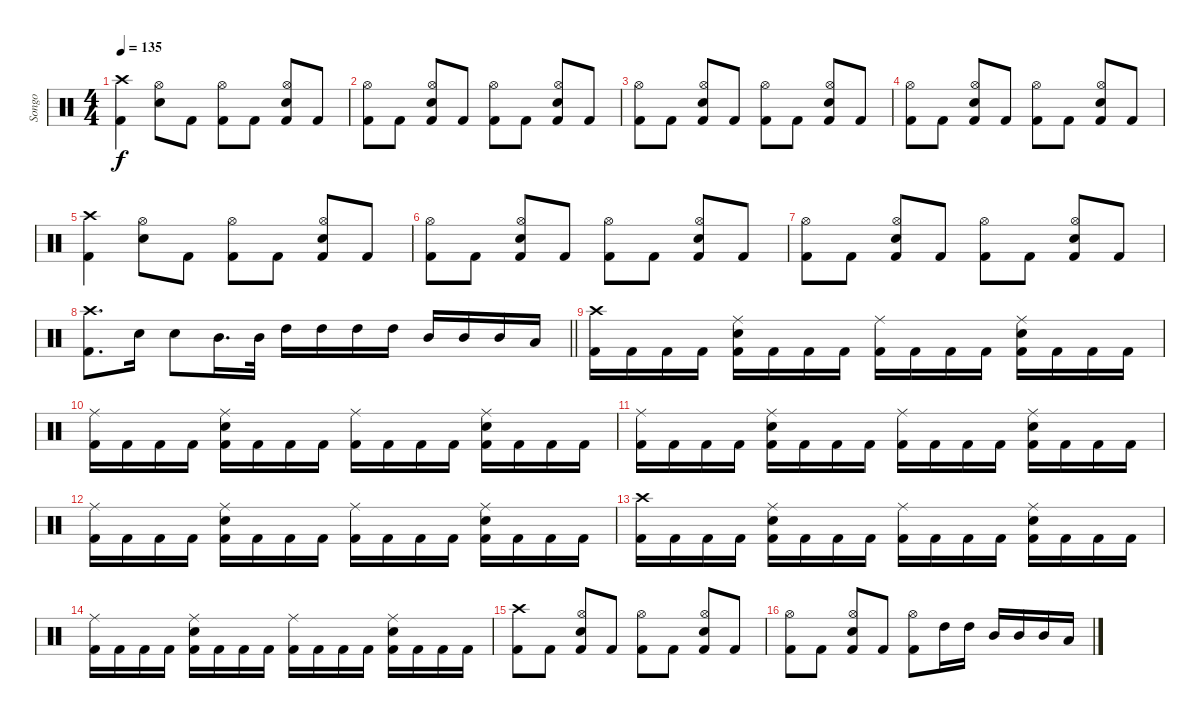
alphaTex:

\track ("Songo" "Songo") {instrument percussion}
\staff {score}
\articulation defaults
\ts (4 4)
\tempo 135
\clef neutral
\ks c
("Crash high (hit)" "Kick (hit) 2").4{dy f} ("Hi-Hat (open)" "Snare (hit) 2").8 "Kick (hit) 2".8 ("Hi-Hat (open)" "Kick (hit) 2").8 "Kick (hit) 2".8 ("Hi-Hat (open)" "Snare (hit) 2" "Kick (hit) 2").8 "Kick (hit) 2".8 |
("Hi-Hat (open)" "Kick (hit) 2").8 "Kick (hit) 2".8 ("Hi-Hat (open)" "Snare (hit) 2" "Kick (hit) 2").8 "Kick (hit) 2".8 ("Hi-Hat (open)" "Kick (hit) 2").8 "Kick (hit) 2".8 ("Hi-Hat (open)" "Snare (hit) 2" "Kick (hit) 2").8 "Kick (hit) 2".8 |
("Hi-Hat (open)" "Kick (hit) 2").8 "Kick (hit) 2".8 ("Hi-Hat (open)" "Snare (hit) 2" "Kick (hit) 2").8 "Kick (hit) 2".8 ("Hi-Hat (open)" "Kick (hit) 2").8 "Kick (hit) 2".8 ("Hi-Hat (open)" "Snare (hit) 2" "Kick (hit) 2").8 "Kick (hit) 2".8 |
("Hi-Hat (open)" "Kick (hit) 2").8 "Kick (hit) 2".8 ("Hi-Hat (open)" "Snare (hit) 2" "Kick (hit) 2").8 "Kick (hit) 2".8 ("Hi-Hat (open)" "Kick (hit) 2").8 "Kick (hit) 2".8 ("Hi-Hat (open)" "Snare (hit) 2" "Kick (hit) 2").8 "Kick (hit) 2".8 |
("Crash high (hit)" "Kick (hit) 2").4 ("Hi-Hat (open)" "Snare (hit) 2").8 "Kick (hit) 2".8 ("Hi-Hat (open)" "Kick (hit) 2").8 "Kick (hit) 2".8 ("Hi-Hat (open)" "Snare (hit) 2" "Kick (hit) 2").8 "Kick (hit) 2".8 |
("Hi-Hat (open)" "Kick (hit) 2").8 "Kick (hit) 2".8 ("Hi-Hat (open)" "Snare (hit) 2" "Kick (hit) 2").8 "Kick (hit) 2".8 ("Hi-Hat (open)" "Kick (hit) 2").8 "Kick (hit) 2".8 ("Hi-Hat (open)" "Snare (hit) 2" "Kick (hit) 2").8 "Kick (hit) 2".8 |
("Hi-Hat (open)" "Kick (hit) 2").8 "Kick (hit) 2".8 ("Hi-Hat (open)" "Snare (hit) 2" "Kick (hit) 2").8 "Kick (hit) 2".8 ("Hi-Hat (open)" "Kick (hit) 2").8 "Kick (hit) 2".8 ("Hi-Hat (open)" "Snare (hit) 2" "Kick (hit) 2").8 "Kick (hit) 2".8 |
\barLineRight lightlight
("Crash high (hit)" "Kick (hit) 2").8{d} "Snare (hit) 2".16 "Snare (hit) 2".8 "Mid Tom (hit)".16{d} "Mid Tom (hit)".32 "High Tom (hit)".16 "High Tom (hit)".16 "High Tom (hit)".16 "High Tom (hit)".16 "Mid Tom (hit)".16 "Mid Tom (hit)".16 "Mid Tom (hit)".16 "Low Tom (hit)".16 |
("Crash high (hit)" "Kick (hit) 2").16 "Kick (hit) 2".16 "Kick (hit) 2".16 "Kick (hit) 2".16 ("Ride (middle)" "Snare (hit) 2" "Kick (hit) 2").16 "Kick (hit) 2".16 "Kick (hit) 2".16 "Kick (hit) 2".16 ("Ride (middle)" "Kick (hit) 2").16 "Kick (hit) 2".16 "Kick (hit) 2".16 "Kick (hit) 2".16 ("Ride (middle)" "Snare (hit) 2" "Kick (hit) 2").16 "Kick (hit) 2".16 "Kick (hit) 2".16 "Kick (hit) 2".16 |
("Ride (middle)" "Kick (hit) 2").16 "Kick (hit) 2".16 "Kick (hit) 2".16 "Kick (hit) 2".16 ("Ride (middle)" "Snare (hit) 2" "Kick (hit) 2").16 "Kick (hit) 2".16 "Kick (hit) 2".16 "Kick (hit) 2".16 ("Ride (middle)" "Kick (hit) 2").16 "Kick (hit) 2".16 "Kick (hit) 2".16 "Kick (hit) 2".16 ("Ride (middle)" "Snare (hit) 2" "Kick (hit) 2").16 "Kick (hit) 2".16 "Kick (hit) 2".16 "Kick (hit) 2".16 |
("Ride (middle)" "Kick (hit) 2").16 "Kick (hit) 2".16 "Kick (hit) 2".16 "Kick (hit) 2".16 ("Ride (middle)" "Snare (hit) 2" "Kick (hit) 2").16 "Kick (hit) 2".16 "Kick (hit) 2".16 "Kick (hit) 2".16 ("Ride (middle)" "Kick (hit) 2").16 "Kick (hit) 2".16 "Kick (hit) 2".16 "Kick (hit) 2".16 ("Ride (middle)" "Snare (hit) 2" "Kick (hit) 2").16 "Kick (hit) 2".16 "Kick (hit) 2".16 "Kick (hit) 2".16 |
("Ride (middle)" "Kick (hit) 2").16 "Kick (hit) 2".16 "Kick (hit) 2".16 "Kick (hit) 2".16 ("Ride (middle)" "Snare (hit) 2" "Kick (hit) 2").16 "Kick (hit) 2".16 "Kick (hit) 2".16 "Kick (hit) 2".16 ("Ride (middle)" "Kick (hit) 2").16 "Kick (hit) 2".16 "Kick (hit) 2".16 "Kick (hit) 2".16 ("Ride (middle)" "Snare (hit) 2" "Kick (hit) 2").16 "Kick (hit) 2".16 "Kick (hit) 2".16 "Kick (hit) 2".16 |
("Crash high (hit)" "Kick (hit) 2").16 "Kick (hit) 2".16 "Kick (hit) 2".16 "Kick (hit) 2".16 ("Ride (middle)" "Snare (hit) 2" "Kick (hit) 2").16 "Kick (hit) 2".16 "Kick (hit) 2".16 "Kick (hit) 2".16 ("Ride (middle)" "Kick (hit) 2").16 "Kick (hit) 2".16 "Kick (hit) 2".16 "Kick (hit) 2".16 ("Ride (middle)" "Snare (hit) 2" "Kick (hit) 2").16 "Kick (hit) 2".16 "Kick (hit) 2".16 "Kick (hit) 2".16 |
("Ride (middle)" "Kick (hit) 2").16 "Kick (hit) 2".16 "Kick (hit) 2".16 "Kick (hit) 2".16 ("Ride (middle)" "Snare (hit) 2" "Kick (hit) 2").16 "Kick (hit) 2".16 "Kick (hit) 2".16 "Kick (hit) 2".16 ("Ride (middle)" "Kick (hit) 2").16 "Kick (hit) 2".16 "Kick (hit) 2".16 "Kick (hit) 2".16 ("Ride (middle)" "Snare (hit) 2" "Kick (hit) 2").16 "Kick (hit) 2".16 "Kick (hit) 2".16 "Kick (hit) 2".16 |
("Crash high (hit)" "Kick (hit) 2").8 "Kick (hit) 2".8 ("Hi-Hat (open)" "Snare (hit) 2" "Kick (hit) 2").8 "Kick (hit) 2".8 ("Hi-Hat (open)" "Kick (hit) 2").8 "Kick (hit) 2".8 ("Hi-Hat (open)" "Snare (hit) 2" "Kick (hit) 2").8 "Kick (hit) 2".8 |
("Hi-Hat (open)" "Kick (hit) 2").8 "Kick (hit) 2".8 ("Hi-Hat (open)" "Snare (hit) 2" "Kick (hit) 2").8 "Kick (hit) 2".8 ("Hi-Hat (open)" "Kick (hit) 2").8 "High Tom (hit)".16 "High Tom (hit)".16 "Mid Tom (hit)".16 "Mid Tom (hit)".16 "Mid Tom (hit)".16 "Low Tom (hit)".16
